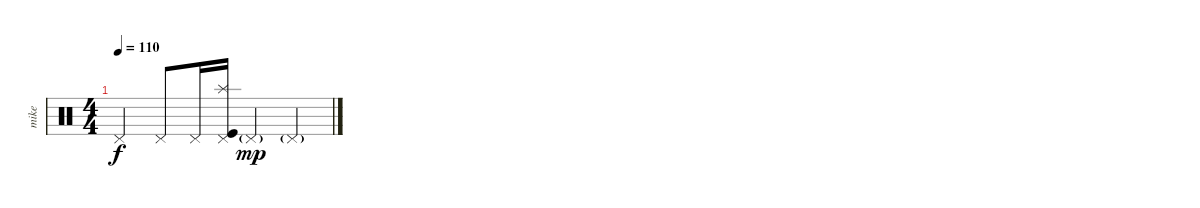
\track ("mike" "mike") {instrument percussion}
\staff {score}
\articulation defaults
\ts (4 4)
\tempo 110
\clef neutral
\ks c "Pedal Hi-Hat (hit)".4{dy f} "Pedal Hi-Hat (hit)".8 "Pedal Hi-Hat (hit)".16
("Pedal Hi-Hat (hit)" "Splash (hit)" "Kick (hit)").16 "Pedal Hi-Hat (hit)"{g}.4{dy mp} "Pedal Hi-Hat (hit)"{g}.4
